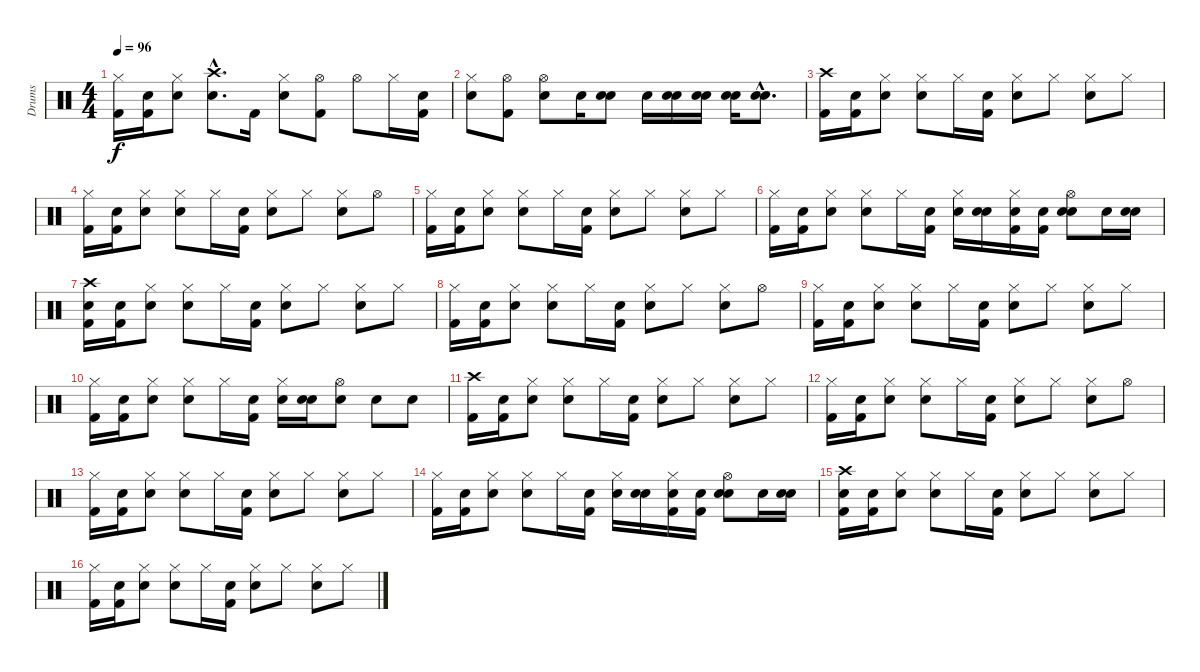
\track ("Drums" "Drums") {instrument percussion}
\staff {score}
\articulation defaults
\ts (4 4)
\tempo 96
\clef neutral
\ks c
("Hi-Hat (closed)" "Kick (hit) 2").16{dy f} ("Snare (hit)" "Kick (hit) 2").16 ("Snare (hit)" "Hi-Hat (closed)").8 ("Crash high (hit)"{hac} "Snare (hit) 2"{hac}).8{d} "Kick (hit) 2".16 ("Snare (hit)" "Hi-Hat (closed)").8 ("Kick (hit) 2" "Hi-Hat (open)").8 "Hi-Hat (open)".8 "Hi-Hat (closed)".16 ("Snare (hit)" "Kick (hit) 2").16 |
("Snare (hit)" "Hi-Hat (closed)").8 ("Kick (hit) 2" "Hi-Hat (open)").8 ("Snare (hit) 2" "Hi-Hat (open)").8 "Snare (hit) 2".16 ("Snare (hit)" "Snare (hit) 2").8 "Electric Snare (hit)".16 ("Snare (hit)" "Snare (hit) 2").16 ("Snare (hit)" "Snare (hit) 2").16 ("Snare (hit)" "Electric Snare (hit)").16 ("Snare (hit)"{hac} "Electric Snare (hit)"{hac}).8{d} |
("Crash high (hit)" "Kick (hit) 2").16 ("Snare (hit)" "Kick (hit) 2").16 ("Snare (hit)" "Hi-Hat (closed)").8 ("Snare (hit) 2" "Hi-Hat (closed)").8 "Hi-Hat (closed)".16 ("Snare (hit)" "Kick (hit) 2").16 ("Snare (hit)" "Hi-Hat (closed)").8 "Hi-Hat (closed)".8 ("Snare (hit) 2" "Hi-Hat (closed)").8 "Hi-Hat (closed)".8 |
("Hi-Hat (closed)" "Kick (hit) 2").16 ("Snare (hit)" "Kick (hit) 2").16 ("Snare (hit)" "Hi-Hat (closed)").8 ("Snare (hit) 2" "Hi-Hat (closed)").8 "Hi-Hat (closed)".16 ("Snare (hit)" "Kick (hit) 2").16 ("Snare (hit)" "Hi-Hat (closed)").8 "Hi-Hat (closed)".8 ("Snare (hit) 2" "Hi-Hat (closed)").8 "Hi-Hat (open)".8 |
("Hi-Hat (closed)" "Kick (hit) 2").16 ("Snare (hit)" "Kick (hit) 2").16 ("Snare (hit)" "Hi-Hat (closed)").8 ("Snare (hit) 2" "Hi-Hat (closed)").8 "Hi-Hat (closed)".16 ("Snare (hit)" "Kick (hit) 2").16 ("Snare (hit)" "Hi-Hat (closed)").8 "Hi-Hat (closed)".8 ("Snare (hit) 2" "Hi-Hat (closed)").8 "Hi-Hat (closed)".8 |
("Hi-Hat (closed)" "Kick (hit) 2").16 ("Snare (hit)" "Kick (hit) 2").16 ("Snare (hit)" "Hi-Hat (closed)").8 ("Snare (hit) 2" "Hi-Hat (closed)").8 "Hi-Hat (closed)".16 ("Snare (hit)" "Kick (hit) 2").16 ("Snare (hit)" "Hi-Hat (closed)").16 ("Snare (hit)" "Snare (hit) 2").16 ("Snare (hit)" "Kick (hit) 2" "Hi-Hat (closed)").16 ("Snare (hit)" "Kick (hit) 2").16 ("Snare (hit)" "Snare (hit) 2" "Hi-Hat (open)").8 "Snare (hit) 2".16 ("Snare (hit)" "Snare (hit) 2").16 |
("Snare (hit)" "Crash high (hit)" "Kick (hit) 2").16 ("Snare (hit)" "Kick (hit) 2").16 ("Snare (hit)" "Hi-Hat (closed)").8 ("Snare (hit) 2" "Hi-Hat (closed)").8 "Hi-Hat (closed)".16 ("Snare (hit)" "Kick (hit) 2").16 ("Snare (hit)" "Hi-Hat (closed)").8 "Hi-Hat (closed)".8 ("Snare (hit) 2" "Hi-Hat (closed)").8 "Hi-Hat (closed)".8 |
("Hi-Hat (closed)" "Kick (hit) 2").16 ("Snare (hit)" "Kick (hit) 2").16 ("Snare (hit)" "Hi-Hat (closed)").8 ("Snare (hit) 2" "Hi-Hat (closed)").8 "Hi-Hat (closed)".16 ("Snare (hit)" "Kick (hit) 2").16 ("Snare (hit)" "Hi-Hat (closed)").8 "Hi-Hat (closed)".8 ("Snare (hit) 2" "Hi-Hat (closed)").8 "Hi-Hat (open)".8 |
("Hi-Hat (closed)" "Kick (hit) 2").16 ("Snare (hit)" "Kick (hit) 2").16 ("Snare (hit)" "Hi-Hat (closed)").8 ("Snare (hit) 2" "Hi-Hat (closed)").8 "Hi-Hat (closed)".16 ("Snare (hit)" "Kick (hit) 2").16 ("Snare (hit)" "Hi-Hat (closed)").8 "Hi-Hat (closed)".8 ("Snare (hit) 2" "Hi-Hat (closed)").8 "Hi-Hat (closed)".8 |
("Hi-Hat (closed)" "Kick (hit) 2").16 ("Snare (hit)" "Kick (hit) 2").16 ("Snare (hit)" "Hi-Hat (closed)").8 ("Snare (hit) 2" "Hi-Hat (closed)").8 "Hi-Hat (closed)".16 ("Snare (hit)" "Kick (hit) 2").16 ("Snare (hit)" "Hi-Hat (closed)").16 ("Snare (hit)" "Snare (hit) 2").16 ("Snare (hit)" "Hi-Hat (open)").8 "Snare (hit) 2".8 "Snare (hit) 2".8 |
("Crash high (hit)" "Kick (hit) 2").16 ("Snare (hit)" "Kick (hit) 2").16 ("Snare (hit)" "Hi-Hat (closed)").8 ("Snare (hit) 2" "Hi-Hat (closed)").8 "Hi-Hat (closed)".16 ("Snare (hit)" "Kick (hit) 2").16 ("Snare (hit)" "Hi-Hat (closed)").8 "Hi-Hat (closed)".8 ("Snare (hit) 2" "Hi-Hat (closed)").8 "Hi-Hat (closed)".8 |
("Hi-Hat (closed)" "Kick (hit) 2").16 ("Snare (hit)" "Kick (hit) 2").16 ("Snare (hit)" "Hi-Hat (closed)").8 ("Snare (hit) 2" "Hi-Hat (closed)").8 "Hi-Hat (closed)".16 ("Snare (hit)" "Kick (hit) 2").16 ("Snare (hit)" "Hi-Hat (closed)").8 "Hi-Hat (closed)".8 ("Snare (hit) 2" "Hi-Hat (closed)").8 "Hi-Hat (open)".8 |
("Hi-Hat (closed)" "Kick (hit) 2").16 ("Snare (hit)" "Kick (hit) 2").16 ("Snare (hit)" "Hi-Hat (closed)").8 ("Snare (hit) 2" "Hi-Hat (closed)").8 "Hi-Hat (closed)".16 ("Snare (hit)" "Kick (hit) 2").16 ("Snare (hit)" "Hi-Hat (closed)").8 "Hi-Hat (closed)".8 ("Snare (hit) 2" "Hi-Hat (closed)").8 "Hi-Hat (closed)".8 |
("Hi-Hat (closed)" "Kick (hit) 2").16 ("Snare (hit)" "Kick (hit) 2").16 ("Snare (hit)" "Hi-Hat (closed)").8 ("Snare (hit) 2" "Hi-Hat (closed)").8 "Hi-Hat (closed)".16 ("Snare (hit)" "Kick (hit) 2").16 ("Snare (hit)" "Hi-Hat (closed)").16 ("Snare (hit)" "Snare (hit) 2").16 ("Snare (hit)" "Hi-Hat (closed)" "Kick (hit) 2").16 ("Snare (hit)" "Kick (hit) 2").16 ("Snare (hit)" "Snare (hit) 2" "Hi-Hat (open)").8 "Snare (hit) 2".16 ("Snare (hit)" "Snare (hit) 2").16 |
("Snare (hit)" "Crash high (hit)" "Kick (hit) 2").16 ("Snare (hit)" "Kick (hit) 2").16 ("Snare (hit)" "Hi-Hat (closed)").8 ("Snare (hit) 2" "Hi-Hat (closed)").8 "Hi-Hat (closed)".16 ("Snare (hit)" "Kick (hit) 2").16 ("Snare (hit)" "Hi-Hat (closed)").8 "Hi-Hat (closed)".8 ("Snare (hit) 2" "Hi-Hat (closed)").8 "Hi-Hat (closed)".8 |
("Hi-Hat (closed)" "Kick (hit) 2").16 ("Snare (hit)" "Kick (hit) 2").16 ("Snare (hit)" "Hi-Hat (closed)").8 ("Snare (hit) 2" "Hi-Hat (closed)").8 "Hi-Hat (closed)".16 ("Snare (hit)" "Kick (hit) 2").16 ("Snare (hit)" "Hi-Hat (closed)").8 "Hi-Hat (closed)".8 ("Snare (hit) 2" "Hi-Hat (closed)").8 "Hi-Hat (closed)".8
